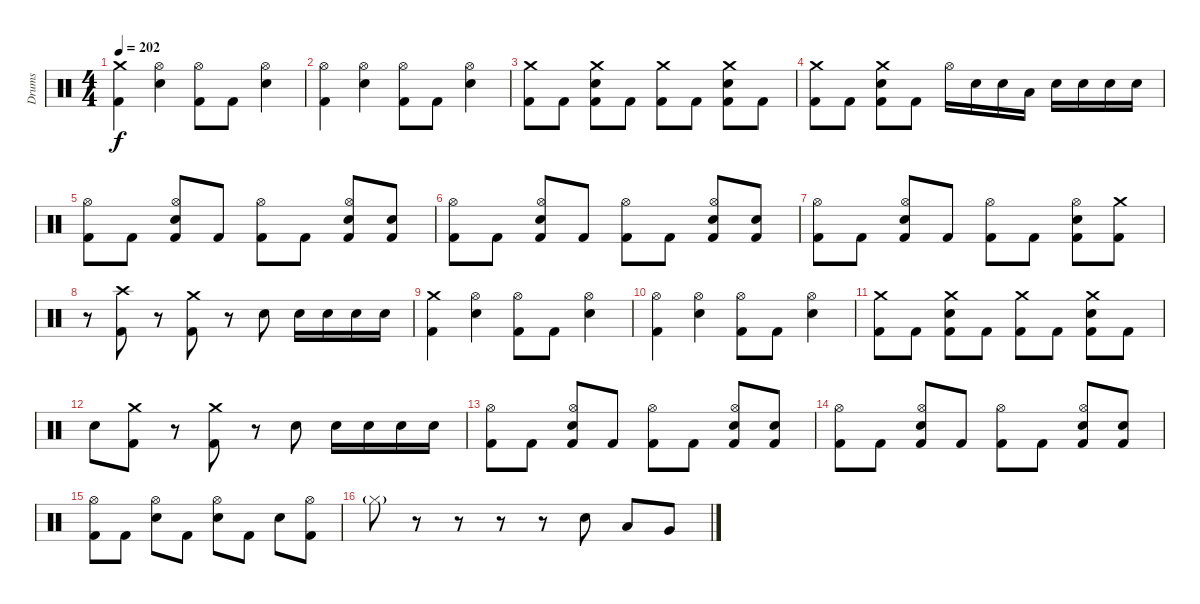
\track ("Drums" "Drums") {instrument percussion}
\staff {score}
\articulation defaults
\ts (4 4)
\tempo 202
\clef neutral
\ks c
("Crash medium (hit)" "Kick (hit) 2").4{dy f} ("Hi-Hat (open)" "Electric Snare (hit)").4 ("Hi-Hat (open)" "Kick (hit) 2").8 "Kick (hit) 2".8 ("Hi-Hat (open)" "Electric Snare (hit)").4 |
("Hi-Hat (open)" "Kick (hit) 2").4 ("Hi-Hat (open)" "Electric Snare (hit)").4 ("Hi-Hat (open)" "Kick (hit) 2").8 "Kick (hit) 2".8 ("Hi-Hat (open)" "Electric Snare (hit)").4 |
("Crash medium (hit)" "Kick (hit) 2").8 "Kick (hit) 2".8 ("Crash medium (hit)" "Electric Snare (hit)" "Kick (hit) 2").8 "Kick (hit) 2".8 ("Crash medium (hit)" "Kick (hit) 2").8 "Kick (hit) 2".8 ("Crash medium (hit)" "Electric Snare (hit)" "Kick (hit) 2").8 "Kick (hit) 2".8 |
("Crash medium (hit)" "Kick (hit) 2").8 "Kick (hit) 2".8 ("Crash medium (hit)" "Electric Snare (hit)" "Kick (hit) 2").8 "Kick (hit) 2".8 "Hi-Hat (open)".16 "Electric Snare (hit)".16 "Electric Snare (hit)".16 "Low Tom (hit)".16 "Electric Snare (hit)".16 "Electric Snare (hit)".16 "Electric Snare (hit)".16 "Electric Snare (hit)".16 |
("Hi-Hat (open)" "Kick (hit) 2").8 "Kick (hit) 2".8 ("Hi-Hat (open)" "Electric Snare (hit)" "Kick (hit) 2").8 "Kick (hit) 2".8 ("Hi-Hat (open)" "Kick (hit) 2").8 "Kick (hit) 2".8 ("Hi-Hat (open)" "Electric Snare (hit)" "Kick (hit) 2").8 ("Electric Snare (hit)" "Kick (hit) 2").8 |
("Hi-Hat (open)" "Kick (hit) 2").8 "Kick (hit) 2".8 ("Hi-Hat (open)" "Electric Snare (hit)" "Kick (hit) 2").8 "Kick (hit) 2".8 ("Hi-Hat (open)" "Kick (hit) 2").8 "Kick (hit) 2".8 ("Hi-Hat (open)" "Electric Snare (hit)" "Kick (hit) 2").8 ("Electric Snare (hit)" "Kick (hit) 2").8 |
("Hi-Hat (open)" "Kick (hit) 2").8 "Kick (hit) 2".8 ("Hi-Hat (open)" "Electric Snare (hit)" "Kick (hit) 2").8 "Kick (hit) 2".8 ("Hi-Hat (open)" "Kick (hit) 2").8 "Kick (hit) 2".8 ("Hi-Hat (open)" "Electric Snare (hit)" "Kick (hit) 2").8 ("Crash medium (hit)" "Kick (hit) 2").8 |
r.8 ("Crash high (hit)" "Kick (hit) 2").8 r.8 ("Crash medium (hit)" "Kick (hit) 2").8 r.8 "Electric Snare (hit)".8 "Electric Snare (hit)".16 "Electric Snare (hit)".16 "Electric Snare (hit)".16 "Electric Snare (hit)".16 |
("Crash medium (hit)" "Kick (hit) 2").4 ("Hi-Hat (open)" "Electric Snare (hit)").4 ("Hi-Hat (open)" "Kick (hit) 2").8 "Kick (hit) 2".8 ("Hi-Hat (open)" "Electric Snare (hit)").4 |
("Hi-Hat (open)" "Kick (hit) 2").4 ("Hi-Hat (open)" "Electric Snare (hit)").4 ("Hi-Hat (open)" "Kick (hit) 2").8 "Kick (hit) 2".8 ("Hi-Hat (open)" "Electric Snare (hit)").4 |
("Crash medium (hit)" "Kick (hit) 2").8 "Kick (hit) 2".8 ("Crash medium (hit)" "Electric Snare (hit)" "Kick (hit) 2").8 "Kick (hit) 2".8 ("Crash medium (hit)" "Kick (hit) 2").8 "Kick (hit) 2".8 ("Crash medium (hit)" "Electric Snare (hit)" "Kick (hit) 2").8 "Kick (hit) 2".8 |
"Electric Snare (hit)".8 ("Crash medium (hit)" "Kick (hit) 2").8 r.8 ("Crash medium (hit)" "Kick (hit) 2").8 r.8 "Electric Snare (hit)".8 "Electric Snare (hit)".16 "Electric Snare (hit)".16 "Electric Snare (hit)".16 "Electric Snare (hit)".16 |
("Hi-Hat (open)" "Kick (hit) 2").8 "Kick (hit) 2".8 ("Hi-Hat (open)" "Electric Snare (hit)" "Kick (hit) 2").8 "Kick (hit) 2".8 ("Hi-Hat (open)" "Kick (hit) 2").8 "Kick (hit) 2".8 ("Hi-Hat (open)" "Electric Snare (hit)" "Kick (hit) 2").8 ("Electric Snare (hit)" "Kick (hit) 2").8 |
("Hi-Hat (open)" "Kick (hit) 2").8 "Kick (hit) 2".8 ("Hi-Hat (open)" "Electric Snare (hit)" "Kick (hit) 2").8 "Kick (hit) 2".8 ("Hi-Hat (open)" "Kick (hit) 2").8 "Kick (hit) 2".8 ("Hi-Hat (open)" "Electric Snare (hit)" "Kick (hit) 2").8 ("Electric Snare (hit)" "Kick (hit) 2").8 |
("Hi-Hat (open)" "Kick (hit) 2").8 "Kick (hit) 2".8 ("Hi-Hat (open)" "Electric Snare (hit)").8 "Kick (hit) 2".8 ("Hi-Hat (open)" "Electric Snare (hit)").8 "Kick (hit) 2".8 "Electric Snare (hit)".8 ("Hi-Hat (open)" "Kick (hit) 2").8 |
"Hi-Hat (closed)"{g}.8 r.8 r.8 r.8 r.8 "Electric Snare (hit)".8 "Low Tom (hit)".8 "Very Low Tom (hit)".8
